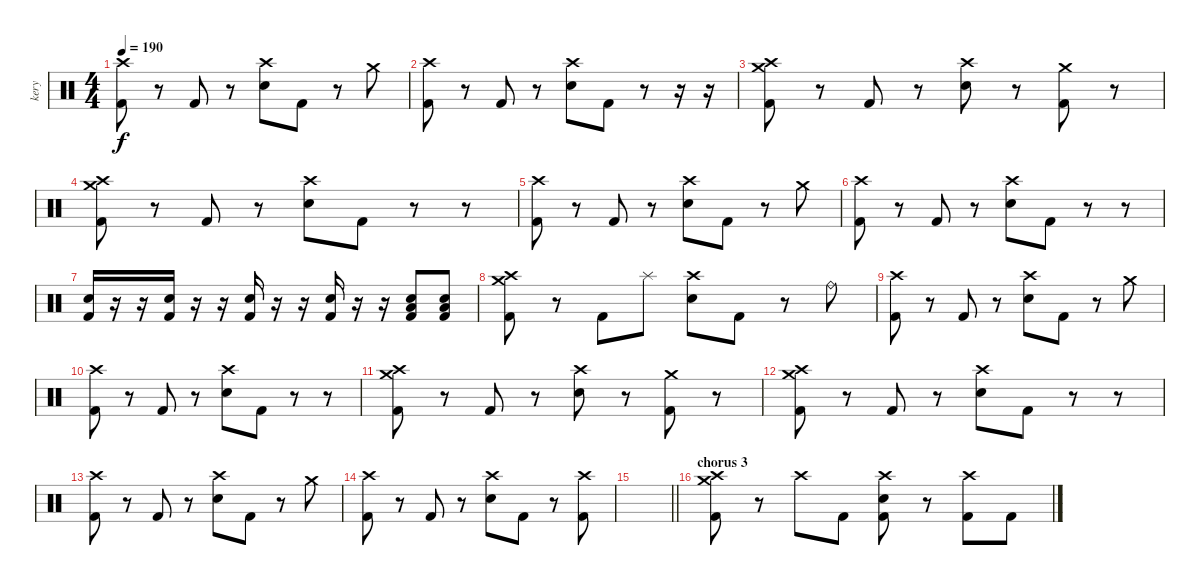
\track ("kery" "kery") {instrument percussion}
\staff {score}
\articulation defaults
\ts (4 4)
\tempo 190
\clef neutral
\ks c
("Crash high (hit)" "Kick (hit) 2").8{dy f} r.8 "Kick (hit) 2".8 r.8 ("Crash high (hit)" "Electric Snare (hit)").8 "Kick (hit) 2".8 r.8 "Crash medium (hit)".8 |
("Crash high (hit)" "Kick (hit) 2").8 r.8 "Kick (hit) 2".8 r.8 ("Crash high (hit)" "Electric Snare (hit)").8 "Kick (hit) 2".8 r.8 r.16 r.16 |
("Crash high (hit)" "Crash medium (hit)" "Kick (hit) 2").8 r.8 "Kick (hit) 2".8 r.8 ("Crash high (hit)" "Electric Snare (hit)").8 r.8 ("Crash medium (hit)" "Kick (hit) 2").8 r.8 |
("Crash high (hit)" "Crash medium (hit)" "Kick (hit) 2").8 r.8 "Kick (hit) 2".8 r.8 ("Crash high (hit)" "Electric Snare (hit)").8 "Kick (hit) 2".8 r.8 r.8 |
("Crash high (hit)" "Kick (hit) 2").8 r.8 "Kick (hit) 2".8 r.8 ("Crash high (hit)" "Electric Snare (hit)").8 "Kick (hit) 2".8 r.8 "Crash medium (hit)".8 |
("Crash high (hit)" "Kick (hit) 2").8 r.8 "Kick (hit) 2".8 r.8 ("Crash high (hit)" "Electric Snare (hit)").8 "Kick (hit) 2".8 r.8 r.8 |
("Kick (hit) 2" "Electric Snare (hit)").16 r.16 r.16 ("Kick (hit) 2" "Electric Snare (hit)").16 r.16 r.16 ("Kick (hit) 2" "Electric Snare (hit)").16 r.16 r.16 ("Kick (hit) 2" "Electric Snare (hit)").16 r.16 r.16 ("Kick (hit) 2" "Low Floor Tom (hit)" "Electric Snare (hit)").8 ("Kick (hit) 2" "Low Floor Tom (hit)" "Electric Snare (hit)").8 |
("Crash high (hit)" "Crash medium (hit)" "Kick (hit) 2").8 r.8 "Kick (hit) 2".8 "Splash (hit)".8 ("Crash high (hit)" "Electric Snare (hit)").8 "Kick (hit) 2".8 r.8 "Ride (bell)".8 |
("Crash high (hit)" "Kick (hit) 2").8 r.8 "Kick (hit) 2".8 r.8 ("Crash high (hit)" "Electric Snare (hit)").8 "Kick (hit) 2".8 r.8 "Crash medium (hit)".8 |
("Crash high (hit)" "Kick (hit) 2").8 r.8 "Kick (hit) 2".8 r.8 ("Crash high (hit)" "Electric Snare (hit)").8 "Kick (hit) 2".8 r.8 r.8 |
("Crash high (hit)" "Crash medium (hit)" "Kick (hit) 2").8 r.8 "Kick (hit) 2".8 r.8 ("Crash high (hit)" "Electric Snare (hit)").8 r.8 ("Crash medium (hit)" "Kick (hit) 2").8 r.8 |
("Crash high (hit)" "Crash medium (hit)" "Kick (hit) 2").8 r.8 "Kick (hit) 2".8 r.8 ("Crash high (hit)" "Electric Snare (hit)").8 "Kick (hit) 2".8 r.8 r.8 |
("Crash high (hit)" "Kick (hit) 2").8 r.8 "Kick (hit) 2".8 r.8 ("Crash high (hit)" "Electric Snare (hit)").8 "Kick (hit) 2".8 r.8 "Crash medium (hit)".8 |
("Crash high (hit)" "Kick (hit) 2").8 r.8 "Kick (hit) 2".8 r.8 ("Crash high (hit)" "Electric Snare (hit)").8 "Kick (hit) 2".8 r.8 ("Crash high (hit)" "Kick (hit) 2").8 |
\barLineRight lightlight
|
\section ("" "chorus 3")
("Crash high (hit)" "Crash medium (hit)" "Kick (hit) 2").8 r.8 "Crash high (hit)".8 "Kick (hit) 2".8 ("Crash high (hit)" "Electric Snare (hit)" "Kick (hit) 2").8 r.8 ("Crash high (hit)" "Kick (hit) 2").8 "Kick (hit) 2".8
